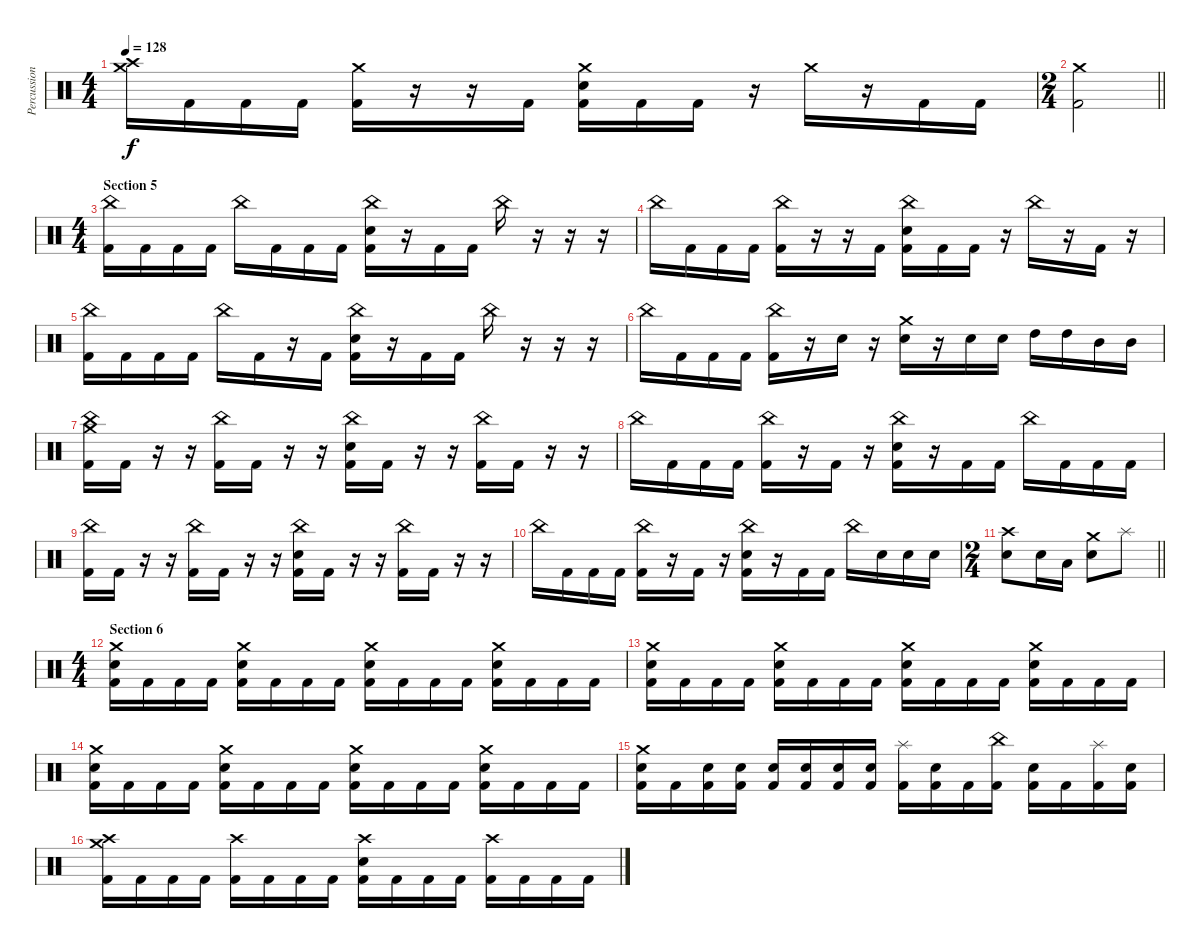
\track ("Percussion" "Percussion") {instrument percussion}
\staff {score}
\articulation defaults
\ts (4 4)
\tempo 128
\clef neutral
\ks c
("Crash medium (hit)" "Crash high (hit)").16{dy f} "Kick (hit) 2".16 "Kick (hit) 2".16 "Kick (hit) 2".16 ("Crash medium (hit)" "Kick (hit) 2").16 r.16 r.16 "Kick (hit) 2".16 ("Crash medium (hit)" "Snare (hit) 2" "Kick (hit) 2").16 "Kick (hit) 2".16 "Kick (hit) 2".16 r.16 "Crash medium (hit)".16 r.16 "Kick (hit) 2".16 "Kick (hit) 2".16 |
\ts (2 4)
\barLineRight lightlight
("Crash medium (hit)" "Kick (hit) 2").2 |
\ts (4 4)
\section ("" "Section 5")
("China (hit)" "Kick (hit) 2").16 "Kick (hit) 2".16 "Kick (hit) 2".16 "Kick (hit) 2".16 "China (hit)".16 "Kick (hit) 2".16 "Kick (hit) 2".16 "Kick (hit) 2".16 ("China (hit)" "Snare (hit) 2" "Kick (hit) 2").16 r.16 "Kick (hit) 2".16 "Kick (hit) 2".16 "China (hit)".16 r.16 r.16 r.16 |
"China (hit)".16 "Kick (hit) 2".16 "Kick (hit) 2".16 "Kick (hit) 2".16 ("China (hit)" "Kick (hit) 2").16 r.16 r.16 "Kick (hit) 2".16 ("China (hit)" "Snare (hit) 2" "Kick (hit) 2").16 "Kick (hit) 2".16 "Kick (hit) 2".16 r.16 "China (hit)".16 r.16 "Kick (hit) 2".16 r.16 |
("China (hit)" "Kick (hit) 2").16 "Kick (hit) 2".16 "Kick (hit) 2".16 "Kick (hit) 2".16 "China (hit)".16 "Kick (hit) 2".16 r.16 "Kick (hit) 2".16 ("China (hit)" "Snare (hit) 2" "Kick (hit) 2").16 r.16 "Kick (hit) 2".16 "Kick (hit) 2".16 "China (hit)".16 r.16 r.16 r.16 |
"China (hit)".16 "Kick (hit) 2".16 "Kick (hit) 2".16 "Kick (hit) 2".16 ("China (hit)" "Kick (hit) 2").16 r.16 "Snare (hit) 2".16 r.16 ("Crash medium (hit)" "Snare (hit) 2").16 r.16 "Snare (hit) 2".16 "Snare (hit) 2".16 "High Tom (hit)".16 "High Tom (hit)".16 "Mid Tom (hit)".16 "Mid Tom (hit)".16 |
("China (hit)" "Crash medium (hit)" "Kick (hit) 2").16 "Kick (hit) 2".16 r.16 r.16 ("China (hit)" "Kick (hit) 2").16 "Kick (hit) 2".16 r.16 r.16 ("China (hit)" "Snare (hit) 2" "Kick (hit) 2").16 "Kick (hit) 2".16 r.16 r.16 ("China (hit)" "Kick (hit) 2").16 "Kick (hit) 2".16 r.16 r.16 |
"China (hit)".16 "Kick (hit) 2".16 "Kick (hit) 2".16 "Kick (hit) 2".16 ("China (hit)" "Kick (hit) 2").16 r.16 "Kick (hit) 2".16 r.16 ("China (hit)" "Snare (hit) 2" "Kick (hit) 2").16 r.16 "Kick (hit) 2".16 "Kick (hit) 2".16 "China (hit)".16 "Kick (hit) 2".16 "Kick (hit) 2".16 "Kick (hit) 2".16 |
("China (hit)" "Kick (hit) 2").16 "Kick (hit) 2".16 r.16 r.16 ("China (hit)" "Kick (hit) 2").16 "Kick (hit) 2".16 r.16 r.16 ("China (hit)" "Snare (hit) 2" "Kick (hit) 2").16 "Kick (hit) 2".16 r.16 r.16 ("China (hit)" "Kick (hit) 2").16 "Kick (hit) 2".16 r.16 r.16 |
"China (hit)".16 "Kick (hit) 2".16 "Kick (hit) 2".16 "Kick (hit) 2".16 ("China (hit)" "Kick (hit) 2").16 r.16 "Kick (hit) 2".16 r.16 ("China (hit)" "Snare (hit) 2" "Kick (hit) 2").16 r.16 "Kick (hit) 2".16 "Kick (hit) 2".16 "China (hit)".16 "Snare (hit) 2".16 "Snare (hit) 2".16 "Snare (hit) 2".16 |
\ts (2 4)
\barLineRight lightlight
("Crash high (hit)" "Snare (hit) 2").8 "Snare (hit) 2".16 "Low Tom (hit)".16 ("Crash medium (hit)" "Snare (hit) 2").8 "Splash (hit)".8 |
\ts (4 4)
\section ("" "Section 6")
("Crash medium (hit)" "Snare (hit) 2" "Kick (hit) 2").16 "Kick (hit) 2".16 "Kick (hit) 2".16 "Kick (hit) 2".16 ("Crash medium (hit)" "Snare (hit) 2" "Kick (hit) 2").16 "Kick (hit) 2".16 "Kick (hit) 2".16 "Kick (hit) 2".16 ("Crash medium (hit)" "Snare (hit) 2" "Kick (hit) 2").16 "Kick (hit) 2".16 "Kick (hit) 2".16 "Kick (hit) 2".16 ("Crash medium (hit)" "Snare (hit) 2" "Kick (hit) 2").16 "Kick (hit) 2".16 "Kick (hit) 2".16 "Kick (hit) 2".16 |
("Crash medium (hit)" "Snare (hit) 2" "Kick (hit) 2").16 "Kick (hit) 2".16 "Kick (hit) 2".16 "Kick (hit) 2".16 ("Crash medium (hit)" "Snare (hit) 2" "Kick (hit) 2").16 "Kick (hit) 2".16 "Kick (hit) 2".16 "Kick (hit) 2".16 ("Crash medium (hit)" "Snare (hit) 2" "Kick (hit) 2").16 "Kick (hit) 2".16 "Kick (hit) 2".16 "Kick (hit) 2".16 ("Crash medium (hit)" "Snare (hit) 2" "Kick (hit) 2").16 "Kick (hit) 2".16 "Kick (hit) 2".16 "Kick (hit) 2".16 |
("Crash medium (hit)" "Snare (hit) 2" "Kick (hit) 2").16 "Kick (hit) 2".16 "Kick (hit) 2".16 "Kick (hit) 2".16 ("Crash medium (hit)" "Snare (hit) 2" "Kick (hit) 2").16 "Kick (hit) 2".16 "Kick (hit) 2".16 "Kick (hit) 2".16 ("Crash medium (hit)" "Snare (hit) 2" "Kick (hit) 2").16 "Kick (hit) 2".16 "Kick (hit) 2".16 "Kick (hit) 2".16 ("Crash medium (hit)" "Snare (hit) 2" "Kick (hit) 2").16 "Kick (hit) 2".16 "Kick (hit) 2".16 "Kick (hit) 2".16 |
("Crash medium (hit)" "Snare (hit) 2" "Kick (hit) 2").16 "Kick (hit) 2".16 ("Snare (hit) 2" "Kick (hit) 2").16 ("Snare (hit) 2" "Kick (hit) 2").16 ("Snare (hit) 2" "Kick (hit) 2").16 ("Snare (hit) 2" "Kick (hit) 2").16 ("Snare (hit) 2" "Kick (hit) 2").16 ("Snare (hit) 2" "Kick (hit) 2").16 ("Splash (hit)" "Kick (hit) 2").16 ("Snare (hit) 2" "Kick (hit) 2").16 "Kick (hit) 2".16 ("China (hit)" "Kick (hit) 2").16 ("Snare (hit) 2" "Kick (hit) 2").16 "Kick (hit) 2".16 ("Splash (hit)" "Kick (hit) 2").16 ("Snare (hit) 2" "Kick (hit) 2").16 |
("Crash high (hit)" "Crash medium (hit)" "Kick (hit) 2").16 "Kick (hit) 2".16 "Kick (hit) 2".16 "Kick (hit) 2".16 ("Crash high (hit)" "Kick (hit) 2").16 "Kick (hit) 2".16 "Kick (hit) 2".16 "Kick (hit) 2".16 ("Crash high (hit)" "Snare (hit) 2" "Kick (hit) 2").16 "Kick (hit) 2".16 "Kick (hit) 2".16 "Kick (hit) 2".16 ("Crash high (hit)" "Kick (hit) 2").16 "Kick (hit) 2".16 "Kick (hit) 2".16 "Kick (hit) 2".16
